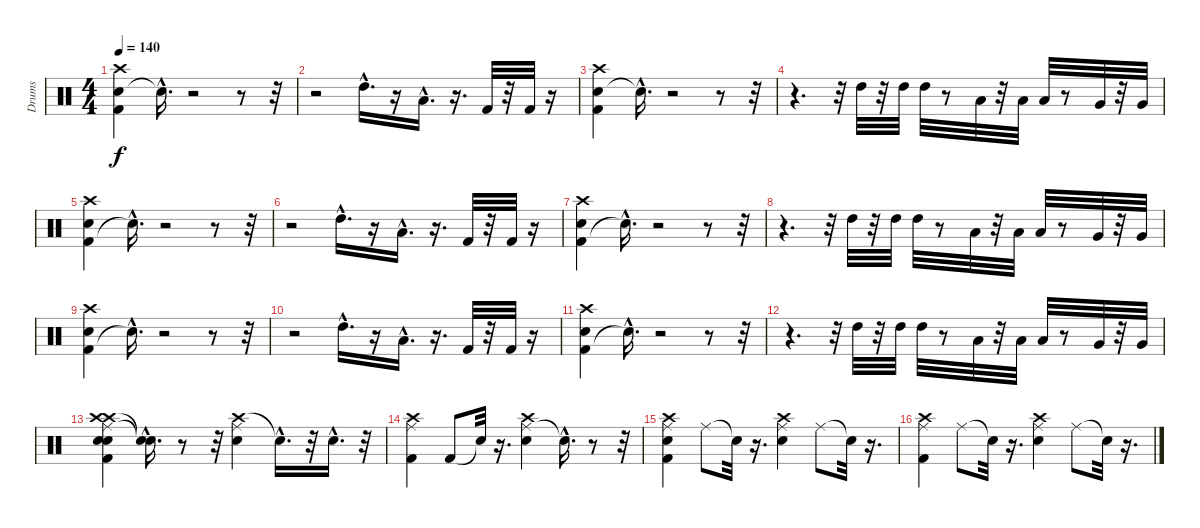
\track ("Drums" "Drums") {instrument percussion}
\staff {score}
\articulation defaults
\ts (4 4)
\tempo 140
\clef neutral
\ks c
("Snare (hit) 2" "Kick (hit) 2" "Crash high (hit)").4{dy f} "Snare (hit)"{hac t}.16{d} r.2 r.8 r.32 |
r.2 "High Tom (hit)"{hac}.16{d} r.16 "Low Tom (hit)"{hac}.16{d} r.16{d} "Kick (hit) 2".32 r.32 "Kick (hit) 2".32 r.16 |
("Snare (hit) 2" "Kick (hit) 2" "Crash high (hit)").4 "Snare (hit)"{hac t}.16{d} r.2 r.8 r.32 |
r.4{d} r.32 "High Tom (hit)".32 r.32 "High Tom (hit)".32 "High Tom (hit)".32 r.8 "Low Tom (hit)".32 r.32 "Low Tom (hit)".32 "Low Tom (hit)".32 r.8 "Very Low Tom (hit)".32 r.32 "Very Low Tom (hit)".32 |
("Kick (hit) 2" "Crash high (hit)" "Snare (hit) 2").4 "Snare (hit)"{hac t}.16{d} r.2 r.8 r.32 |
r.2 "High Tom (hit)"{hac}.16{d} r.16 "Low Tom (hit)"{hac}.16{d} r.16{d} "Kick (hit) 2".32 r.32 "Kick (hit) 2".32 r.16 |
("Kick (hit) 2" "Snare (hit) 2" "Crash high (hit)").4 "Snare (hit)"{hac t}.16{d} r.2 r.8 r.32 |
r.4{d} r.32 "High Tom (hit)".32 r.32 "High Tom (hit)".32 "High Tom (hit)".32 r.8 "Low Tom (hit)".32 r.32 "Low Tom (hit)".32 "Low Tom (hit)".32 r.8 "Very Low Tom (hit)".32 r.32 "Very Low Tom (hit)".32 |
("Kick (hit) 2" "Crash high (hit)" "Snare (hit) 2").4 "Snare (hit)"{hac t}.16{d} r.2 r.8 r.32 |
r.2 "High Tom (hit)"{hac}.16{d} r.16 "Low Tom (hit)"{hac}.16{d} r.16{d} "Kick (hit) 2".32 r.32 "Kick (hit) 2".32 r.16 |
("Kick (hit) 2" "Crash high (hit)" "Snare (hit) 2").4 "Snare (hit)"{hac t}.16{d} r.2 r.8 r.32 |
r.4{d} r.32 "High Tom (hit)".32 r.32 "High Tom (hit)".32 "High Tom (hit)".32 r.8 "Low Tom (hit)".32 r.32 "Low Tom (hit)".32 "Low Tom (hit)".32 r.8 "Very Low Tom (hit)".32 r.32 "Very Low Tom (hit)".32 |
("Ride (middle)" "Crash high (hit)" "Snare (hit) 2" "Snare (hit) 2" "Kick (hit) 2" "Crash high (hit)").4 ("Snare (hit)"{hac t} "Snare (hit)"{hac t}).16{d} r.8 r.32 ("Crash high (hit)" "Ride (middle)" "Snare (hit) 2").4 "Snare (hit)"{hac t}.16{d} r.32 "Snare (hit) 2"{hac}.16{d} r.32 |
("Kick (hit) 2" "Crash high (hit)" "Ride (middle)").4 "Kick (hit) 2".8 "Snare (hit)"{t}.32 r.16{d} ("Ride (middle)" "Snare (hit) 2" "Crash high (hit)").4 "Snare (hit)"{hac t}.16{d} r.8 r.32 |
("Ride (middle)" "Kick (hit) 2" "Crash high (hit)" "Snare (hit) 2").4 "Ride (middle)".8 "Snare (hit)"{t}.32 r.16{d} ("Ride (middle)" "Crash high (hit)" "Snare (hit) 2").4 "Ride (middle)".8 "Snare (hit)"{t}.32 r.16{d} |
("Kick (hit) 2" "Crash high (hit)" "Ride (middle)").4 "Ride (middle)".8 "Snare (hit)"{t}.32 r.16{d} ("Snare (hit) 2" "Ride (middle)" "Crash high (hit)").4 "Ride (middle)".8 "Snare (hit)"{t}.32 r.16{d}
